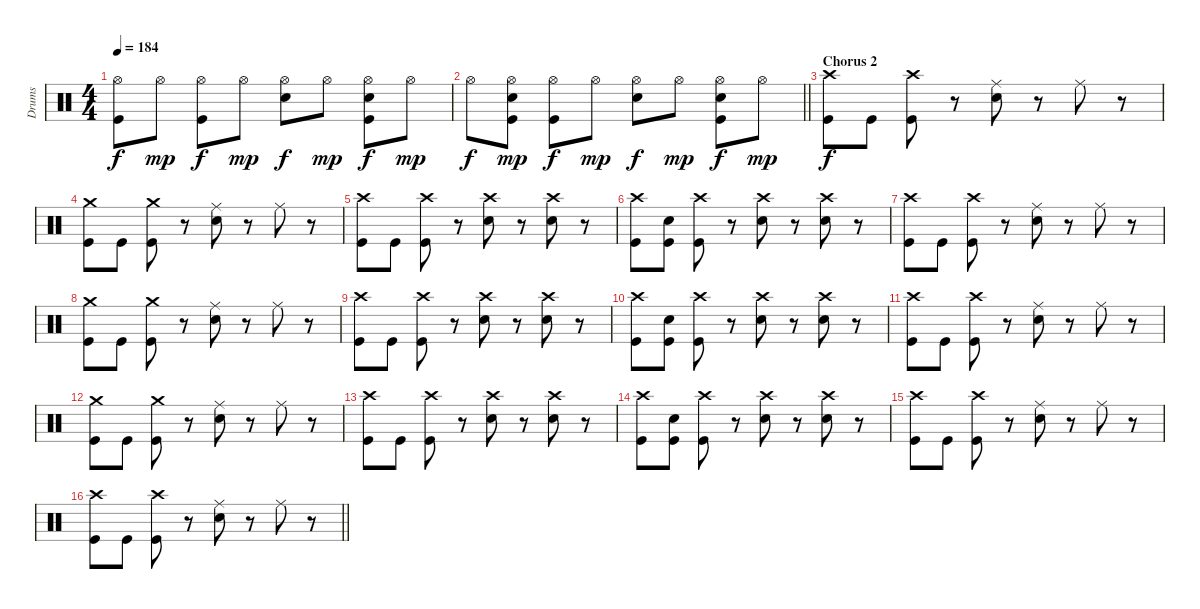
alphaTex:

\track ("Drums" "Drums") {instrument percussion}
\staff {score}
\articulation defaults
\ts (4 4)
\tempo 184
\clef neutral
\ks c
("Hi-Hat (open)" "Kick (hit)").8{dy f} "Hi-Hat (open)".8{dy mp} ("Hi-Hat (open)" "Kick (hit)").8{dy f} "Hi-Hat (open)".8{dy mp} ("Hi-Hat (open)" "Electric Snare (hit)").8{dy f} "Hi-Hat (open)".8{dy mp} ("Hi-Hat (open)" "Electric Snare (hit)" "Kick (hit)").8{dy f} "Hi-Hat (open)".8{dy mp} |
\barLineRight lightlight "Hi-Hat (open)".8{dy f}
("Hi-Hat (open)" "Electric Snare (hit)" "Kick (hit)").8{dy mp} ("Hi-Hat (open)" "Kick (hit)").8{dy f} "Hi-Hat (open)".8{dy mp} ("Hi-Hat (open)" "Electric Snare (hit)").8{dy f} "Hi-Hat (open)".8{dy mp} ("Hi-Hat (open)" "Electric Snare (hit)" "Kick (hit)").8{dy f} "Hi-Hat (open)".8{dy mp} |
\section ("" "Chorus 2")
("Crash high (hit)" "Kick (hit)").8{dy f} "Kick (hit)".8 ("Crash high (hit)" "Kick (hit)").8 r.8 ("Ride (middle)" "Electric Snare (hit)").8 r.8 "Ride (middle)".8 r.8 |
("Crash medium (hit)" "Kick (hit)").8 "Kick (hit)".8 ("Crash medium (hit)" "Kick (hit)").8 r.8 ("Ride (middle)" "Electric Snare (hit)").8 r.8 "Ride (middle)".8 r.8 |
("Crash high (hit)" "Kick (hit)").8 "Kick (hit)".8 ("Crash high (hit)" "Kick (hit)").8 r.8 ("Crash high (hit)" "Electric Snare (hit)").8 r.8 ("Crash high (hit)" "Electric Snare (hit)").8 r.8 |
("Crash high (hit)" "Kick (hit)").8 ("Electric Snare (hit)" "Kick (hit)").8 ("Crash high (hit)" "Kick (hit)").8 r.8 ("Crash high (hit)" "Electric Snare (hit)").8 r.8 ("Crash high (hit)" "Electric Snare (hit)").8 r.8 |
("Crash high (hit)" "Kick (hit)").8 "Kick (hit)".8 ("Crash high (hit)" "Kick (hit)").8 r.8 ("Ride (middle)" "Electric Snare (hit)").8 r.8 "Ride (middle)".8 r.8 |
("Crash medium (hit)" "Kick (hit)").8 "Kick (hit)".8 ("Crash medium (hit)" "Kick (hit)").8 r.8 ("Ride (middle)" "Electric Snare (hit)").8 r.8 "Ride (middle)".8 r.8 |
("Crash high (hit)" "Kick (hit)").8 "Kick (hit)".8 ("Crash high (hit)" "Kick (hit)").8 r.8 ("Crash high (hit)" "Electric Snare (hit)").8 r.8 ("Crash high (hit)" "Electric Snare (hit)").8 r.8 |
("Crash high (hit)" "Kick (hit)").8 ("Electric Snare (hit)" "Kick (hit)").8 ("Crash high (hit)" "Kick (hit)").8 r.8 ("Crash high (hit)" "Electric Snare (hit)").8 r.8 ("Crash high (hit)" "Electric Snare (hit)").8 r.8 |
("Crash high (hit)" "Kick (hit)").8 "Kick (hit)".8 ("Crash high (hit)" "Kick (hit)").8 r.8 ("Ride (middle)" "Electric Snare (hit)").8 r.8 "Ride (middle)".8 r.8 |
("Crash medium (hit)" "Kick (hit)").8 "Kick (hit)".8 ("Crash medium (hit)" "Kick (hit)").8 r.8 ("Ride (middle)" "Electric Snare (hit)").8 r.8 "Ride (middle)".8 r.8 |
("Crash high (hit)" "Kick (hit)").8 "Kick (hit)".8 ("Crash high (hit)" "Kick (hit)").8 r.8 ("Crash high (hit)" "Electric Snare (hit)").8 r.8 ("Crash high (hit)" "Electric Snare (hit)").8 r.8 |
("Crash high (hit)" "Kick (hit)").8 ("Electric Snare (hit)" "Kick (hit)").8 ("Crash high (hit)" "Kick (hit)").8 r.8 ("Crash high (hit)" "Electric Snare (hit)").8 r.8 ("Crash high (hit)" "Electric Snare (hit)").8 r.8 |
("Crash high (hit)" "Kick (hit)").8 "Kick (hit)".8 ("Crash high (hit)" "Kick (hit)").8 r.8 ("Ride (middle)" "Electric Snare (hit)").8 r.8 "Ride (middle)".8 r.8 |
\barLineRight lightlight
("Crash high (hit)" "Kick (hit)").8 "Kick (hit)".8 ("Crash high (hit)" "Kick (hit)").8 r.8 ("Ride (middle)" "Electric Snare (hit)").8 r.8 "Ride (middle)".8 r.8
